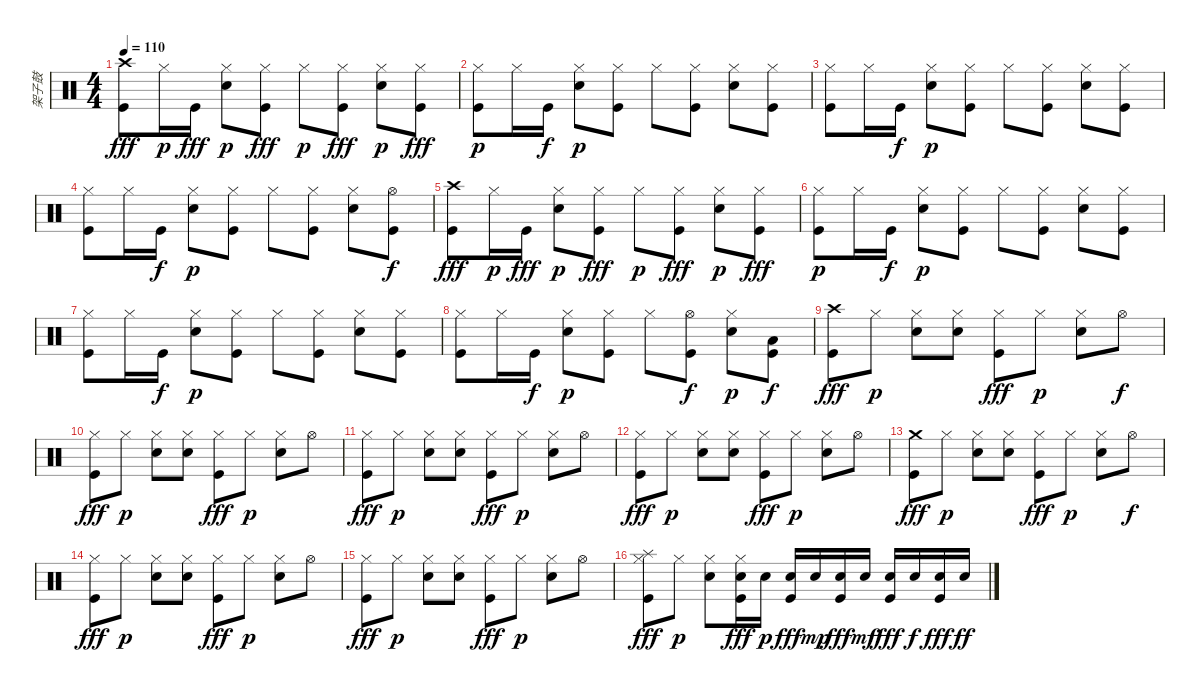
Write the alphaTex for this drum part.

\track ("架子鼓" "架子鼓") {instrument percussion}
\staff {score}
\articulation defaults
\ts (4 4)
\tempo 110
\clef neutral
\ks c
("Crash high (hit)" "Kick (hit)").8{dy fff} "Hi-Hat (closed)".16{dy p} "Kick (hit)".16{dy fff} ("Electric Snare (hit)" "Hi-Hat (closed)").8{dy p} ("Hi-Hat (closed)" "Kick (hit)").8{dy fff} "Hi-Hat (closed)".8{dy p} ("Hi-Hat (closed)" "Kick (hit)").8{dy fff} ("Electric Snare (hit)" "Hi-Hat (closed)").8{dy p} ("Hi-Hat (closed)" "Kick (hit)").8{dy fff} |
("Hi-Hat (closed)" "Kick (hit)").8{dy p} "Hi-Hat (closed)".16 "Kick (hit)".16{dy f} ("Electric Snare (hit)" "Hi-Hat (closed)").8{dy p} ("Hi-Hat (closed)" "Kick (hit)").8 "Hi-Hat (closed)".8 ("Hi-Hat (closed)" "Kick (hit)").8 ("Electric Snare (hit)" "Hi-Hat (closed)").8 ("Hi-Hat (closed)" "Kick (hit)").8 |
("Hi-Hat (closed)" "Kick (hit)").8 "Hi-Hat (closed)".16 "Kick (hit)".16{dy f} ("Electric Snare (hit)" "Hi-Hat (closed)").8{dy p} ("Hi-Hat (closed)" "Kick (hit)").8 "Hi-Hat (closed)".8 ("Hi-Hat (closed)" "Kick (hit)").8 ("Electric Snare (hit)" "Hi-Hat (closed)").8 ("Hi-Hat (closed)" "Kick (hit)").8 |
("Hi-Hat (closed)" "Kick (hit)").8 "Hi-Hat (closed)".16 "Kick (hit)".16{dy f} ("Electric Snare (hit)" "Hi-Hat (closed)").8{dy p} ("Hi-Hat (closed)" "Kick (hit)").8 "Hi-Hat (closed)".8 ("Hi-Hat (closed)" "Kick (hit)").8 ("Electric Snare (hit)" "Hi-Hat (closed)").8 ("Hi-Hat (open)" "Kick (hit)").8{dy f} |
("Crash high (hit)" "Kick (hit)").8{dy fff} "Hi-Hat (closed)".16{dy p} "Kick (hit)".16{dy fff} ("Electric Snare (hit)" "Hi-Hat (closed)").8{dy p} ("Hi-Hat (closed)" "Kick (hit)").8{dy fff} "Hi-Hat (closed)".8{dy p} ("Hi-Hat (closed)" "Kick (hit)").8{dy fff} ("Electric Snare (hit)" "Hi-Hat (closed)").8{dy p} ("Hi-Hat (closed)" "Kick (hit)").8{dy fff} |
("Hi-Hat (closed)" "Kick (hit)").8{dy p} "Hi-Hat (closed)".16 "Kick (hit)".16{dy f} ("Electric Snare (hit)" "Hi-Hat (closed)").8{dy p} ("Hi-Hat (closed)" "Kick (hit)").8 "Hi-Hat (closed)".8 ("Hi-Hat (closed)" "Kick (hit)").8 ("Electric Snare (hit)" "Hi-Hat (closed)").8 ("Hi-Hat (closed)" "Kick (hit)").8 |
("Hi-Hat (closed)" "Kick (hit)").8 "Hi-Hat (closed)".16 "Kick (hit)".16{dy f} ("Electric Snare (hit)" "Hi-Hat (closed)").8{dy p} ("Hi-Hat (closed)" "Kick (hit)").8 "Hi-Hat (closed)".8 ("Hi-Hat (closed)" "Kick (hit)").8 ("Electric Snare (hit)" "Hi-Hat (closed)").8 ("Hi-Hat (closed)" "Kick (hit)").8 |
("Hi-Hat (closed)" "Kick (hit)").8 "Hi-Hat (closed)".16 "Kick (hit)".16{dy f} ("Electric Snare (hit)" "Hi-Hat (closed)").8{dy p} ("Hi-Hat (closed)" "Kick (hit)").8 "Hi-Hat (closed)".8 ("Hi-Hat (open)" "Kick (hit)").8{dy f} ("Electric Snare (hit)" "Hi-Hat (closed)").8{dy p} ("Low Floor Tom (hit)" "Kick (hit)").8{dy f} |
("Crash high (hit)" "Kick (hit)").8{dy fff} "Hi-Hat (closed)".8{dy p} ("Electric Snare (hit)" "Hi-Hat (closed)").8 ("Electric Snare (hit)" "Hi-Hat (closed)").8 ("Hi-Hat (closed)" "Kick (hit)").8{dy fff} "Hi-Hat (closed)".8{dy p} ("Electric Snare (hit)" "Hi-Hat (closed)").8 "Hi-Hat (open)".8{dy f} |
("Hi-Hat (closed)" "Kick (hit)").8{dy fff} "Hi-Hat (closed)".8{dy p} ("Electric Snare (hit)" "Hi-Hat (closed)").8 ("Electric Snare (hit)" "Hi-Hat (closed)").8 ("Hi-Hat (closed)" "Kick (hit)").8{dy fff} "Hi-Hat (closed)".8{dy p} ("Electric Snare (hit)" "Hi-Hat (closed)").8 "Hi-Hat (open)".8 |
("Hi-Hat (closed)" "Kick (hit)").8{dy fff} "Hi-Hat (closed)".8{dy p} ("Electric Snare (hit)" "Hi-Hat (closed)").8 ("Electric Snare (hit)" "Hi-Hat (closed)").8 ("Hi-Hat (closed)" "Kick (hit)").8{dy fff} "Hi-Hat (closed)".8{dy p} ("Electric Snare (hit)" "Hi-Hat (closed)").8 "Hi-Hat (open)".8 |
("Hi-Hat (closed)" "Kick (hit)").8{dy fff} "Hi-Hat (closed)".8{dy p} ("Electric Snare (hit)" "Hi-Hat (closed)").8 ("Electric Snare (hit)" "Hi-Hat (closed)").8 ("Hi-Hat (closed)" "Kick (hit)").8{dy fff} "Hi-Hat (closed)".8{dy p} ("Electric Snare (hit)" "Hi-Hat (closed)").8 "Hi-Hat (open)".8 |
("Crash medium (hit)" "Kick (hit)").8{dy fff} "Hi-Hat (closed)".8{dy p} ("Electric Snare (hit)" "Hi-Hat (closed)").8 ("Electric Snare (hit)" "Hi-Hat (closed)").8 ("Hi-Hat (closed)" "Kick (hit)").8{dy fff} "Hi-Hat (closed)".8{dy p} ("Electric Snare (hit)" "Hi-Hat (closed)").8 "Hi-Hat (open)".8{dy f} |
("Hi-Hat (closed)" "Kick (hit)").8{dy fff} "Hi-Hat (closed)".8{dy p} ("Electric Snare (hit)" "Hi-Hat (closed)").8 ("Electric Snare (hit)" "Hi-Hat (closed)").8 ("Hi-Hat (closed)" "Kick (hit)").8{dy fff} "Hi-Hat (closed)".8{dy p} ("Electric Snare (hit)" "Hi-Hat (closed)").8 "Hi-Hat (open)".8 |
("Hi-Hat (closed)" "Kick (hit)").8{dy fff} "Hi-Hat (closed)".8{dy p} ("Electric Snare (hit)" "Hi-Hat (closed)").8 ("Electric Snare (hit)" "Hi-Hat (closed)").8 ("Hi-Hat (closed)" "Kick (hit)").8{dy fff} "Hi-Hat (closed)".8{dy p} ("Electric Snare (hit)" "Hi-Hat (closed)").8 "Hi-Hat (open)".8 |
("Splash (hit)" "Hi-Hat (closed)" "Kick (hit)").8{dy fff} "Hi-Hat (closed)".8{dy p} ("Electric Snare (hit)" "Hi-Hat (closed)").8 ("Electric Snare (hit)" "Hi-Hat (closed)" "Kick (hit)").16{dy fff} "Electric Snare (hit)".16{dy p} ("Electric Snare (hit)" "Kick (hit)").16{dy fff} "Electric Snare (hit)".16{dy mp} ("Electric Snare (hit)" "Kick (hit)").16{dy fff} "Electric Snare (hit)".16{dy mf} ("Electric Snare (hit)" "Kick (hit)").16{dy fff} "Electric Snare (hit)".16{dy f} ("Electric Snare (hit)" "Kick (hit)").16{dy fff} "Electric Snare (hit)".16{dy ff}
